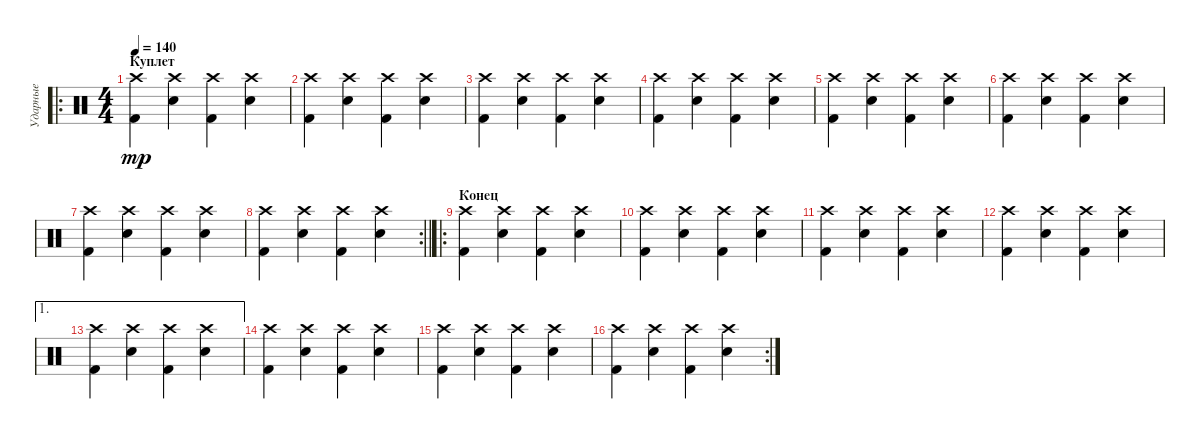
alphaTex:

\track ("Ударные" "Ударные") {instrument percussion}
\staff {score}
\articulation defaults
\ro
\ts (4 4)
\section ("" "Куплет")
\tempo 140
\clef neutral
\ks c
("Crash high (hit)" "Kick (hit) 2").4{dy mp} ("Crash high (hit)" "Snare (hit) 2").4 ("Crash high (hit)" "Kick (hit) 2").4 ("Crash high (hit)" "Snare (hit) 2").4 |
("Crash high (hit)" "Kick (hit) 2").4 ("Crash high (hit)" "Snare (hit) 2").4 ("Crash high (hit)" "Kick (hit) 2").4 ("Crash high (hit)" "Snare (hit) 2").4 |
("Crash high (hit)" "Kick (hit) 2").4 ("Crash high (hit)" "Snare (hit) 2").4 ("Crash high (hit)" "Kick (hit) 2").4 ("Crash high (hit)" "Snare (hit) 2").4 |
("Crash high (hit)" "Kick (hit) 2").4 ("Crash high (hit)" "Snare (hit) 2").4 ("Crash high (hit)" "Kick (hit) 2").4 ("Crash high (hit)" "Snare (hit) 2").4 |
("Crash high (hit)" "Kick (hit) 2").4 ("Crash high (hit)" "Snare (hit) 2").4 ("Crash high (hit)" "Kick (hit) 2").4 ("Crash high (hit)" "Snare (hit) 2").4 |
("Crash high (hit)" "Kick (hit) 2").4 ("Crash high (hit)" "Snare (hit) 2").4 ("Crash high (hit)" "Kick (hit) 2").4 ("Crash high (hit)" "Snare (hit) 2").4 |
("Crash high (hit)" "Kick (hit) 2").4 ("Crash high (hit)" "Snare (hit) 2").4 ("Crash high (hit)" "Kick (hit) 2").4 ("Crash high (hit)" "Snare (hit) 2").4 |
\rc 2
\barLineRight lightlight
("Crash high (hit)" "Kick (hit) 2").4 ("Crash high (hit)" "Snare (hit) 2").4 ("Crash high (hit)" "Kick (hit) 2").4 ("Crash high (hit)" "Snare (hit) 2").4 |
\ro
\section ("" "Конец")
("Crash high (hit)" "Kick (hit) 2").4 ("Crash high (hit)" "Snare (hit) 2").4 ("Crash high (hit)" "Kick (hit) 2").4 ("Crash high (hit)" "Snare (hit) 2").4 |
("Crash high (hit)" "Kick (hit) 2").4 ("Crash high (hit)" "Snare (hit) 2").4 ("Crash high (hit)" "Kick (hit) 2").4 ("Crash high (hit)" "Snare (hit) 2").4 |
("Crash high (hit)" "Kick (hit) 2").4 ("Crash high (hit)" "Snare (hit) 2").4 ("Crash high (hit)" "Kick (hit) 2").4 ("Crash high (hit)" "Snare (hit) 2").4 |
("Crash high (hit)" "Kick (hit) 2").4 ("Crash high (hit)" "Snare (hit) 2").4 ("Crash high (hit)" "Kick (hit) 2").4 ("Crash high (hit)" "Snare (hit) 2").4 |
\ae 1
("Crash high (hit)" "Kick (hit) 2").4 ("Crash high (hit)" "Snare (hit) 2").4 ("Crash high (hit)" "Kick (hit) 2").4 ("Crash high (hit)" "Snare (hit) 2").4 |
("Crash high (hit)" "Kick (hit) 2").4 ("Crash high (hit)" "Snare (hit) 2").4 ("Crash high (hit)" "Kick (hit) 2").4 ("Crash high (hit)" "Snare (hit) 2").4 |
("Crash high (hit)" "Kick (hit) 2").4 ("Crash high (hit)" "Snare (hit) 2").4 ("Crash high (hit)" "Kick (hit) 2").4 ("Crash high (hit)" "Snare (hit) 2").4 |
\rc 2
("Crash high (hit)" "Kick (hit) 2").4 ("Crash high (hit)" "Snare (hit) 2").4 ("Crash high (hit)" "Kick (hit) 2").4 ("Crash high (hit)" "Snare (hit) 2").4
